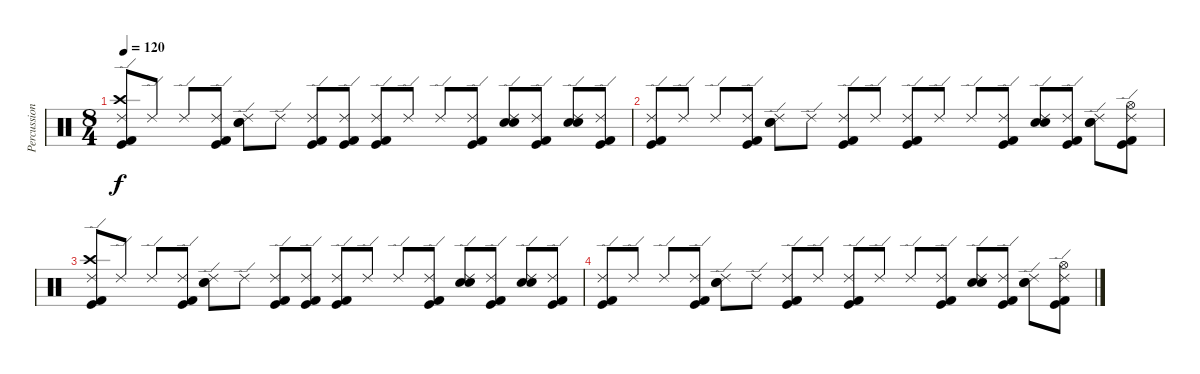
\track ("Percussion" "Percussion") {instrument percussion}
\staff {score}
\articulation defaults
\ts (8 4)
\tempo 120
\clef neutral
\ks c
("Ride (edge) 2" "Crash high (hit)" "Kick (hit) 2" "Kick (hit)").8{dy f volume 10} "Ride (edge) 2".8 "Ride (edge) 2".8 ("Ride (edge) 2" "Kick (hit) 2" "Kick (hit)").8 ("Ride (edge) 2" "Electric Snare (hit)" "Snare (hit) 2").8 "Ride (edge) 2".8 ("Ride (edge) 2" "Kick (hit) 2" "Kick (hit)").8 ("Ride (edge) 2" "Kick (hit) 2" "Kick (hit)").8 ("Ride (edge) 2" "Kick (hit) 2" "Kick (hit)").8 "Ride (edge) 2".8 "Ride (edge) 2".8 ("Ride (edge) 2" "Kick (hit) 2" "Kick (hit)").8 ("Ride (edge) 2" "Electric Snare (hit)" "Snare (hit) 2").8 ("Ride (edge) 2" "Kick (hit) 2" "Kick (hit)").8 ("Ride (edge) 2" "Electric Snare (hit)" "Snare (hit) 2").8 ("Ride (edge) 2" "Kick (hit) 2" "Kick (hit)").8 |
("Ride (edge) 2" "Kick (hit) 2" "Kick (hit)").8{volume 7} "Ride (edge) 2".8 "Ride (edge) 2".8 ("Ride (edge) 2" "Kick (hit) 2" "Kick (hit)").8 ("Ride (edge) 2" "Electric Snare (hit)" "Snare (hit) 2").8 "Ride (edge) 2".8 ("Ride (edge) 2" "Kick (hit) 2" "Kick (hit)").8 "Ride (edge) 2".8 ("Ride (edge) 2" "Kick (hit) 2" "Kick (hit)").8 "Ride (edge) 2".8 "Ride (edge) 2".8 ("Ride (edge) 2" "Kick (hit) 2" "Kick (hit)").8 ("Ride (edge) 2" "Electric Snare (hit)" "Snare (hit) 2").8 ("Ride (edge) 2" "Kick (hit) 2" "Kick (hit)").8 ("Ride (edge) 2" "Electric Snare (hit)" "Snare (hit) 2").8 ("Ride (edge) 2" "Hi-Hat (open)" "Kick (hit) 2" "Kick (hit)").8 |
("Ride (edge) 2" "Crash high (hit)" "Kick (hit) 2" "Kick (hit)").8{volume 3} "Ride (edge) 2".8 "Ride (edge) 2".8 ("Ride (edge) 2" "Kick (hit) 2" "Kick (hit)").8 ("Ride (edge) 2" "Electric Snare (hit)" "Snare (hit) 2").8 "Ride (edge) 2".8 ("Ride (edge) 2" "Kick (hit) 2" "Kick (hit)").8 ("Ride (edge) 2" "Kick (hit) 2" "Kick (hit)").8 ("Ride (edge) 2" "Kick (hit) 2" "Kick (hit)").8 "Ride (edge) 2".8 "Ride (edge) 2".8 ("Ride (edge) 2" "Kick (hit) 2" "Kick (hit)").8 ("Ride (edge) 2" "Electric Snare (hit)" "Snare (hit) 2").8 ("Ride (edge) 2" "Kick (hit) 2" "Kick (hit)").8 ("Ride (edge) 2" "Electric Snare (hit)" "Snare (hit) 2").8 ("Ride (edge) 2" "Kick (hit) 2" "Kick (hit)").8 |
("Ride (edge) 2" "Kick (hit) 2" "Kick (hit)").8{volume 0} "Ride (edge) 2".8 "Ride (edge) 2".8 ("Ride (edge) 2" "Kick (hit) 2" "Kick (hit)").8 ("Ride (edge) 2" "Electric Snare (hit)" "Snare (hit) 2").8 "Ride (edge) 2".8 ("Ride (edge) 2" "Kick (hit) 2" "Kick (hit)").8 "Ride (edge) 2".8 ("Ride (edge) 2" "Kick (hit) 2" "Kick (hit)").8 "Ride (edge) 2".8 "Ride (edge) 2".8 ("Ride (edge) 2" "Kick (hit) 2" "Kick (hit)").8 ("Ride (edge) 2" "Electric Snare (hit)" "Snare (hit) 2").8 ("Ride (edge) 2" "Kick (hit) 2" "Kick (hit)").8 ("Ride (edge) 2" "Electric Snare (hit)" "Snare (hit) 2").8 ("Ride (edge) 2" "Hi-Hat (open)" "Kick (hit) 2" "Kick (hit)").8
